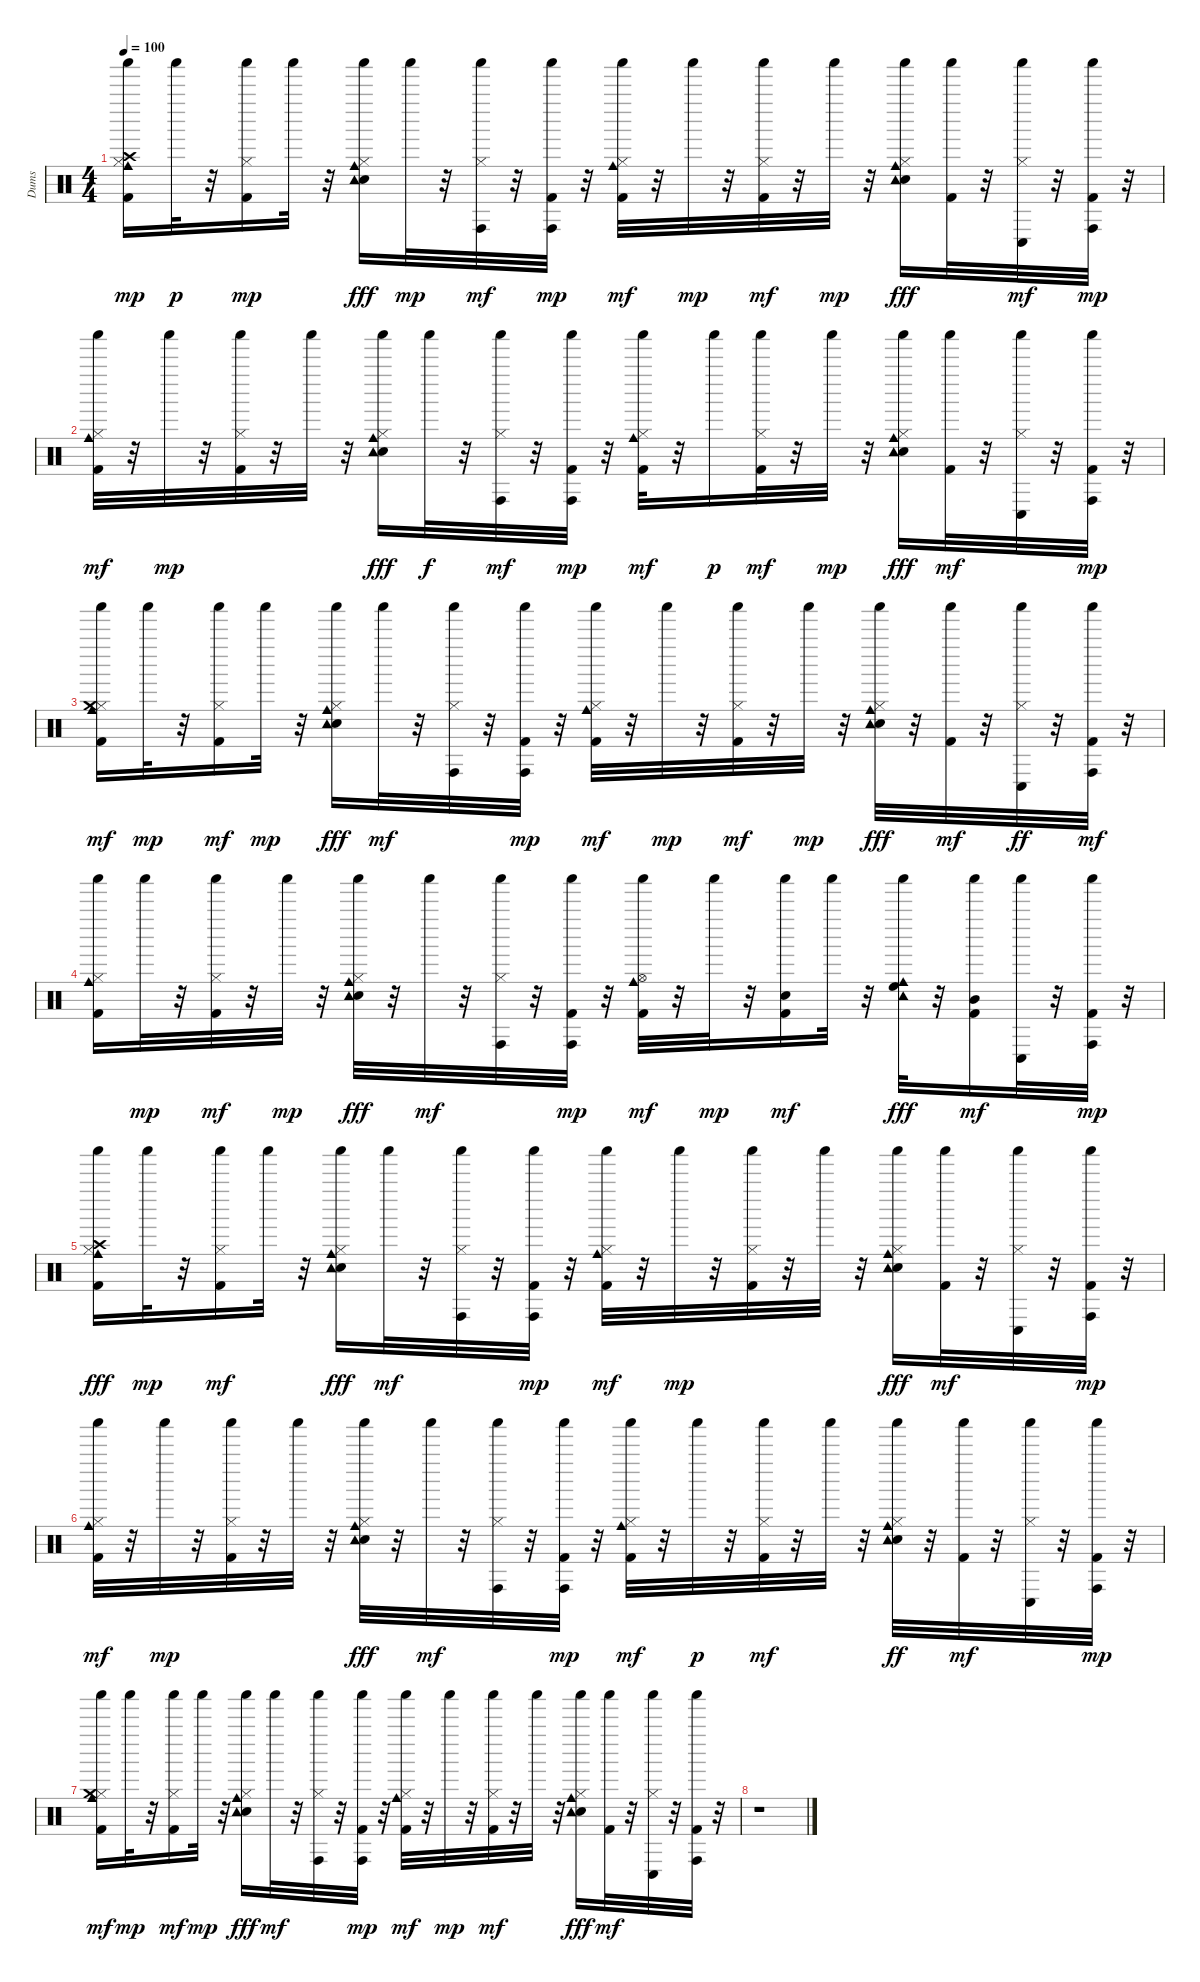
\track ("Dums" "Dums") {instrument percussion}
\staff {score}
\articulation defaults
\ts (4 4)
\tempo 100
\clef neutral
\ks c
("Kick (hit) 2" "Hi-Hat (closed)" "Cowbell medium (hit)" "Crash high (hit)" "Shaker (hit)").16{dy mp} "Shaker (hit)".32{dy p} r.32 ("Kick (hit) 2" "Hi-Hat (closed)" "Shaker (hit)").16{dy mp} "Shaker (hit)".32 r.32 ("Electric Snare (hit)" "Hi-Hat (closed)" "Cowbell medium (hit)" "Shaker (hit)" "Tambourine (hit)").16{dy fff} "Shaker (hit)".32{dy mp} r.32 ("Hi-Hat (closed)" "Conga high (hit)" "Shaker (hit)").32{dy mf} r.32 ("Kick (hit) 2" "Conga high (hit)" "Shaker (hit)").32{dy mp} r.32 ("Kick (hit) 2" "Hi-Hat (closed)" "Cowbell medium (hit)" "Shaker (hit)").32{dy mf} r.32 "Shaker (hit)".32{dy mp} r.32 ("Kick (hit) 2" "Hi-Hat (closed)" "Shaker (hit)").32{dy mf} r.32 "Shaker (hit)".32{dy mp} r.32 ("Electric Snare (hit)" "Hi-Hat (closed)" "Cowbell medium (hit)" "Shaker (hit)" "Tambourine (hit)").16{dy fff} ("Kick (hit) 2" "Shaker (hit)").32 r.32 ("Hi-Hat (closed)" "Conga low (hit)" "Shaker (hit)").32{dy mf} r.32 ("Kick (hit) 2" "Conga high (hit)" "Shaker (hit)").32{dy mp} r.32 |
("Kick (hit) 2" "Hi-Hat (closed)" "Cowbell medium (hit)" "Shaker (hit)").32{dy mf} r.32 "Shaker (hit)".32{dy mp} r.32 ("Kick (hit) 2" "Hi-Hat (closed)" "Shaker (hit)").32 r.32 "Shaker (hit)".32 r.32 ("Electric Snare (hit)" "Hi-Hat (closed)" "Cowbell medium (hit)" "Shaker (hit)" "Tambourine (hit)").16{dy fff} "Shaker (hit)".32{dy f} r.32 ("Hi-Hat (closed)" "Conga high (hit)" "Shaker (hit)").32{dy mf} r.32 ("Kick (hit) 2" "Conga high (hit)" "Shaker (hit)").32{dy mp} r.32 ("Kick (hit) 2" "Hi-Hat (closed)" "Cowbell medium (hit)" "Shaker (hit)").32{dy mf} r.32 "Shaker (hit)".16{dy p} ("Kick (hit) 2" "Hi-Hat (closed)" "Shaker (hit)").32{dy mf} r.32 "Shaker (hit)".32{dy mp} r.32 ("Electric Snare (hit)" "Hi-Hat (closed)" "Cowbell medium (hit)" "Shaker (hit)" "Tambourine (hit)").16{dy fff} ("Kick (hit) 2" "Shaker (hit)").32{dy mf} r.32 ("Hi-Hat (closed)" "Conga low (hit)" "Shaker (hit)").32 r.32 ("Kick (hit) 2" "Conga high (hit)" "Shaker (hit)").32{dy mp} r.32 |
("Kick (hit) 2" "Hi-Hat (closed)" "Cowbell medium (hit)" "Crash medium (hit)" "Shaker (hit)").16{dy mf} "Shaker (hit)".32{dy mp} r.32 ("Kick (hit) 2" "Hi-Hat (closed)" "Shaker (hit)").16{dy mf} "Shaker (hit)".32{dy mp} r.32 ("Electric Snare (hit)" "Hi-Hat (closed)" "Cowbell medium (hit)" "Shaker (hit)" "Tambourine (hit)").16{dy fff} "Shaker (hit)".32{dy mf} r.32 ("Hi-Hat (closed)" "Conga high (hit)" "Shaker (hit)").32 r.32 ("Kick (hit) 2" "Conga high (hit)" "Shaker (hit)").32{dy mp} r.32 ("Kick (hit) 2" "Hi-Hat (closed)" "Cowbell medium (hit)" "Shaker (hit)").32{dy mf} r.32 "Shaker (hit)".32{dy mp} r.32 ("Kick (hit) 2" "Hi-Hat (closed)" "Shaker (hit)").32{dy mf} r.32 "Shaker (hit)".32{dy mp} r.32 ("Electric Snare (hit)" "Hi-Hat (closed)" "Cowbell medium (hit)" "Shaker (hit)" "Tambourine (hit)").32{dy fff} r.32 ("Kick (hit) 2" "Shaker (hit)").32{dy mf} r.32 ("Hi-Hat (closed)" "Conga low (hit)" "Shaker (hit)").32{dy ff} r.32 ("Kick (hit) 2" "Conga high (hit)" "Shaker (hit)").32{dy mf} r.32 |
("Kick (hit) 2" "Hi-Hat (closed)" "Cowbell medium (hit)" "Shaker (hit)").16 "Shaker (hit)".32{dy mp} r.32 ("Kick (hit) 2" "Hi-Hat (closed)" "Shaker (hit)").32{dy mf} r.32 "Shaker (hit)".32{dy mp} r.32 ("Electric Snare (hit)" "Hi-Hat (closed)" "Cowbell medium (hit)" "Shaker (hit)" "Tambourine (hit)").32{dy fff} r.32 "Shaker (hit)".32{dy mf} r.32 ("Hi-Hat (closed)" "Conga high (hit)" "Shaker (hit)").32 r.32 ("Kick (hit) 2" "Conga high (hit)" "Shaker (hit)").32{dy mp} r.32 ("Kick (hit) 2" "Hi-Hat (open)" "Cowbell medium (hit)" "Shaker (hit)").32{dy mf} r.32 "Shaker (hit)".32{dy mp} r.32 ("Kick (hit) 2" "Electric Snare (hit)" "Shaker (hit)").16{dy mf} "Shaker (hit)".32 r.32 ("High Floor Tom (hit)" "Cowbell medium (hit)" "Shaker (hit)" "Tambourine (hit)").32{dy fff} r.32 ("Kick (hit) 2" "Mid Tom (hit)" "Shaker (hit)").16{dy mf} ("Conga low (hit)" "Shaker (hit)").32 r.32 ("Kick (hit) 2" "Conga high (hit)" "Shaker (hit)").32{dy mp} r.32 |
("Kick (hit) 2" "Hi-Hat (closed)" "Cowbell medium (hit)" "Crash high (hit)" "Shaker (hit)").16{dy fff} "Shaker (hit)".32{dy mp} r.32 ("Kick (hit) 2" "Hi-Hat (closed)" "Shaker (hit)").16{dy mf} "Shaker (hit)".32 r.32 ("Electric Snare (hit)" "Hi-Hat (closed)" "Cowbell medium (hit)" "Shaker (hit)" "Tambourine (hit)").16{dy fff} "Shaker (hit)".32{dy mf} r.32 ("Hi-Hat (closed)" "Conga high (hit)" "Shaker (hit)").32 r.32 ("Kick (hit) 2" "Conga high (hit)" "Shaker (hit)").32{dy mp} r.32 ("Kick (hit) 2" "Hi-Hat (closed)" "Cowbell medium (hit)" "Shaker (hit)").32{dy mf} r.32 "Shaker (hit)".32{dy mp} r.32 ("Kick (hit) 2" "Hi-Hat (closed)" "Shaker (hit)").32 r.32 "Shaker (hit)".32 r.32 ("Electric Snare (hit)" "Hi-Hat (closed)" "Cowbell medium (hit)" "Shaker (hit)" "Tambourine (hit)").16{dy fff} ("Kick (hit) 2" "Shaker (hit)").32{dy mf} r.32 ("Hi-Hat (closed)" "Conga low (hit)" "Shaker (hit)").32 r.32 ("Kick (hit) 2" "Conga high (hit)" "Shaker (hit)").32{dy mp} r.32 |
("Kick (hit) 2" "Hi-Hat (closed)" "Cowbell medium (hit)" "Shaker (hit)").32{dy mf} r.32 "Shaker (hit)".32{dy mp} r.32 ("Kick (hit) 2" "Hi-Hat (closed)" "Shaker (hit)").32 r.32 "Shaker (hit)".32 r.32 ("Electric Snare (hit)" "Hi-Hat (closed)" "Cowbell medium (hit)" "Shaker (hit)" "Tambourine (hit)").32{dy fff} r.32 "Shaker (hit)".32{dy mf} r.32 ("Hi-Hat (closed)" "Conga high (hit)" "Shaker (hit)").32 r.32 ("Kick (hit) 2" "Conga high (hit)" "Shaker (hit)").32{dy mp} r.32 ("Kick (hit) 2" "Hi-Hat (closed)" "Cowbell medium (hit)" "Shaker (hit)").32{dy mf} r.32 "Shaker (hit)".32{dy p} r.32 ("Kick (hit) 2" "Hi-Hat (closed)" "Shaker (hit)").32{dy mf} r.32 "Shaker (hit)".32 r.32 ("Electric Snare (hit)" "Hi-Hat (closed)" "Cowbell medium (hit)" "Shaker (hit)" "Tambourine (hit)").32{dy ff} r.32 ("Kick (hit) 2" "Shaker (hit)").32{dy mf} r.32 ("Hi-Hat (closed)" "Conga low (hit)" "Shaker (hit)").32 r.32 ("Kick (hit) 2" "Conga high (hit)" "Shaker (hit)").32{dy mp} r.32 |
("Kick (hit) 2" "Hi-Hat (closed)" "Cowbell medium (hit)" "Crash medium (hit)" "Shaker (hit)").16{dy mf} "Shaker (hit)".32{dy mp} r.32 ("Kick (hit) 2" "Hi-Hat (closed)" "Shaker (hit)").16{dy mf} "Shaker (hit)".32{dy mp} r.32 ("Electric Snare (hit)" "Hi-Hat (closed)" "Cowbell medium (hit)" "Shaker (hit)" "Tambourine (hit)").16{dy fff} "Shaker (hit)".32{dy mf} r.32 ("Hi-Hat (closed)" "Conga high (hit)" "Shaker (hit)").32 r.32 ("Kick (hit) 2" "Conga high (hit)" "Shaker (hit)").32{dy mp} r.32 ("Kick (hit) 2" "Hi-Hat (closed)" "Cowbell medium (hit)" "Shaker (hit)").32{dy mf} r.32 "Shaker (hit)".32{dy mp} r.32 ("Kick (hit) 2" "Hi-Hat (closed)" "Shaker (hit)").32{dy mf} r.32 "Shaker (hit)".32 r.32 ("Electric Snare (hit)" "Hi-Hat (closed)" "Cowbell medium (hit)" "Shaker (hit)" "Tambourine (hit)").16{dy fff} ("Kick (hit) 2" "Shaker (hit)").32{dy mf} r.32 ("Hi-Hat (closed)" "Conga low (hit)" "Shaker (hit)").32 r.32 ("Kick (hit) 2" "Conga high (hit)" "Shaker (hit)").32 r.32 |
r.1
